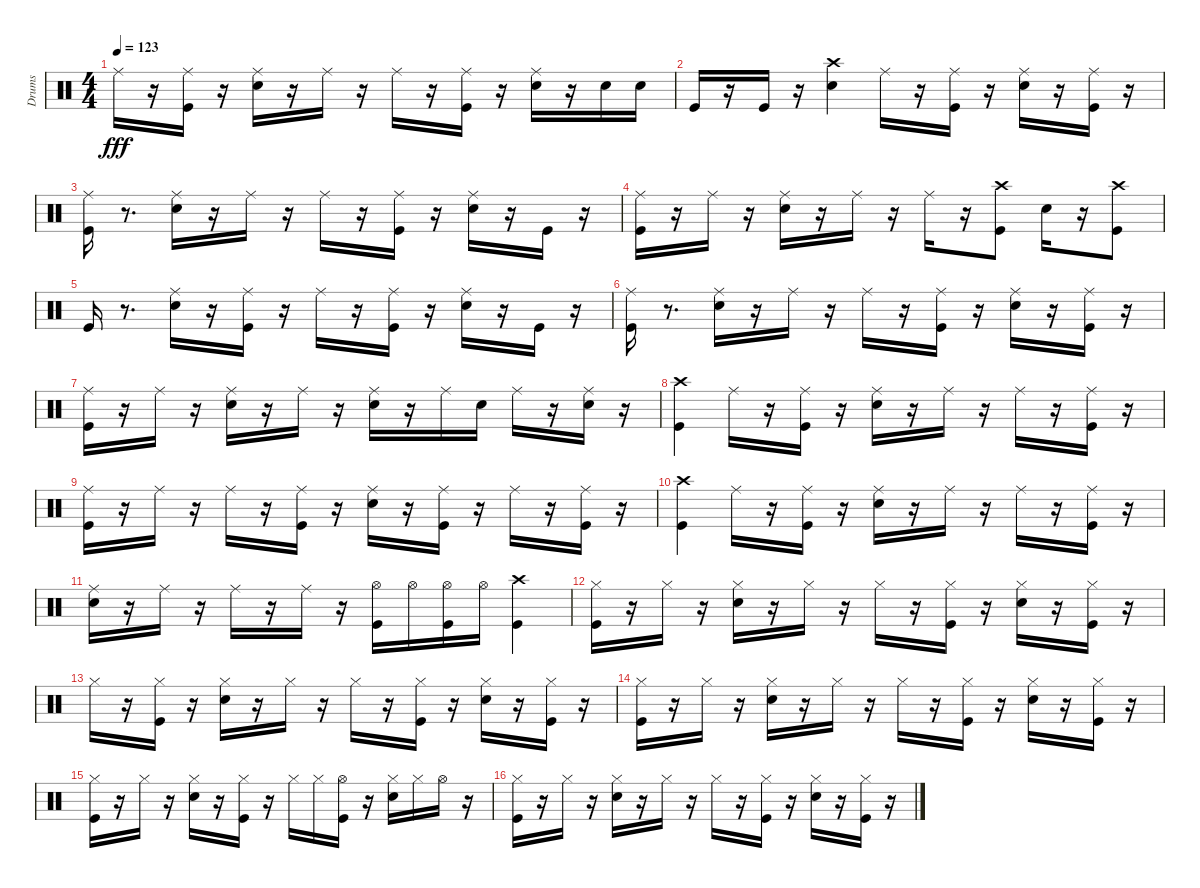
\track ("Drums" "Drums") {instrument percussion}
\staff {score}
\articulation defaults
\ts (4 4)
\tempo 123
\clef neutral
\ks c "Ride (middle)".16{dy fff}
r.16 ("Ride (middle)" "Kick (hit)").16 r.16 ("Ride (middle)" "Snare (hit) 2").16 r.16 "Ride (middle)".16 r.16 "Ride (middle)".16 r.16 ("Ride (middle)" "Kick (hit)").16 r.16 ("Ride (middle)" "Snare (hit) 2").16 r.16 "Snare (hit) 2".16 "Snare (hit) 2".16 |
"Kick (hit)".16 r.16 "Kick (hit)".16 r.16 ("Snare (hit) 2" "Crash high (hit)").4 "Ride (middle)".16 r.16 ("Kick (hit)" "Ride (middle)").16 r.16 ("Snare (hit) 2" "Ride (middle)").16 r.16 ("Kick (hit)" "Ride (middle)").16 r.16 |
("Ride (middle)" "Kick (hit)").16 r.8{d} ("Ride (middle)" "Snare (hit) 2").16 r.16 "Ride (middle)".16 r.16 "Ride (middle)".16 r.16 ("Ride (middle)" "Kick (hit)").16 r.16 ("Ride (middle)" "Snare (hit) 2").16 r.16 "Kick (hit)".16 r.16 |
("Kick (hit)" "Ride (middle)").16 r.16 "Ride (middle)".16 r.16 ("Snare (hit) 2" "Ride (middle)").16 r.16 "Ride (middle)".16 r.16 "Ride (middle)".16 r.16 ("Kick (hit)" "Crash high (hit)").8 "Snare (hit) 2".16 r.16 ("Kick (hit)" "Crash high (hit)").8 |
"Kick (hit)".16 r.8{d} ("Ride (middle)" "Snare (hit) 2").16 r.16 ("Ride (middle)" "Kick (hit)").16 r.16 "Ride (middle)".16 r.16 ("Ride (middle)" "Kick (hit)").16 r.16 ("Ride (middle)" "Snare (hit) 2").16 r.16 "Kick (hit)".16 r.16 |
("Kick (hit)" "Ride (middle)").16 r.8{d} ("Snare (hit) 2" "Ride (middle)").16 r.16 "Ride (middle)".16 r.16 "Ride (middle)".16 r.16 ("Kick (hit)" "Ride (middle)").16 r.16 ("Snare (hit) 2" "Ride (middle)").16 r.16 ("Kick (hit)" "Ride (middle)").16 r.16 |
("Ride (middle)" "Kick (hit)").16 r.16 "Ride (middle)".16 r.16 ("Ride (middle)" "Snare (hit) 2").16 r.16 "Ride (middle)".16 r.16 ("Ride (middle)" "Snare (hit) 2").16 r.16 "Ride (middle)".16 "Snare (hit) 2".16 "Ride (middle)".16 r.16 ("Ride (middle)" "Snare (hit) 2").16 r.16 |
("Kick (hit)" "Crash high (hit)").4 "Ride (middle)".16 r.16 ("Kick (hit)" "Ride (middle)").16 r.16 ("Snare (hit) 2" "Ride (middle)").16 r.16 "Ride (middle)".16 r.16 "Ride (middle)".16 r.16 ("Kick (hit)" "Ride (middle)").16 r.16 |
("Ride (middle)" "Kick (hit)").16 r.16 "Ride (middle)".16 r.16 "Ride (middle)".16 r.16 ("Ride (middle)" "Kick (hit)").16 r.16 ("Ride (middle)" "Snare (hit) 2").16 r.16 ("Ride (middle)" "Kick (hit)").16 r.16 "Ride (middle)".16 r.16 ("Ride (middle)" "Kick (hit)").16 r.16 |
("Kick (hit)" "Crash high (hit)").4 "Ride (middle)".16 r.16 ("Kick (hit)" "Ride (middle)").16 r.16 ("Snare (hit) 2" "Ride (middle)").16 r.16 "Ride (middle)".16 r.16 "Ride (middle)".16 r.16 ("Kick (hit)" "Ride (middle)").16 r.16 |
("Ride (middle)" "Snare (hit) 2").16 r.16 "Ride (middle)".16 r.16 "Ride (middle)".16 r.16 "Ride (middle)".16 r.16 ("Hi-Hat (open)" "Kick (hit)").16 "Hi-Hat (open)".16 ("Hi-Hat (open)" "Kick (hit)").16 "Hi-Hat (open)".16 ("Kick (hit)" "Crash high (hit)").4 |
("Kick (hit)" "Hi-Hat (closed)").16 r.16 "Hi-Hat (closed)".16 r.16 ("Snare (hit) 2" "Hi-Hat (closed)").16 r.16 "Hi-Hat (closed)".16 r.16 "Hi-Hat (closed)".16 r.16 ("Kick (hit)" "Hi-Hat (closed)").16 r.16 ("Snare (hit) 2" "Hi-Hat (closed)").16 r.16 ("Kick (hit)" "Hi-Hat (closed)").16 r.16 |
"Hi-Hat (closed)".16 r.16 ("Kick (hit)" "Hi-Hat (closed)").16 r.16 ("Snare (hit) 2" "Hi-Hat (closed)").16 r.16 "Hi-Hat (closed)".16 r.16 "Hi-Hat (closed)".16 r.16 ("Kick (hit)" "Hi-Hat (closed)").16 r.16 ("Snare (hit) 2" "Hi-Hat (closed)").16 r.16 ("Kick (hit)" "Hi-Hat (closed)").16 r.16 |
("Kick (hit)" "Hi-Hat (closed)").16 r.16 "Hi-Hat (closed)".16 r.16 ("Snare (hit) 2" "Hi-Hat (closed)").16 r.16 "Hi-Hat (closed)".16 r.16 "Hi-Hat (closed)".16 r.16 ("Kick (hit)" "Hi-Hat (closed)").16 r.16 ("Snare (hit) 2" "Hi-Hat (closed)").16 r.16 ("Kick (hit)" "Hi-Hat (closed)").16 r.16 |
("Kick (hit)" "Hi-Hat (closed)").16 r.16 "Hi-Hat (closed)".16 r.16 ("Snare (hit) 2" "Hi-Hat (closed)").16 r.16 ("Kick (hit)" "Hi-Hat (closed)").16 r.16 "Hi-Hat (closed)".16 "Hi-Hat (closed)".16 ("Kick (hit)" "Hi-Hat (open)").16 r.16 ("Snare (hit) 2" "Hi-Hat (closed)").16 "Hi-Hat (closed)".16 "Hi-Hat (open)".16 r.16 |
("Kick (hit)" "Hi-Hat (closed)").16 r.16 "Hi-Hat (closed)".16 r.16 ("Snare (hit) 2" "Hi-Hat (closed)").16 r.16 "Hi-Hat (closed)".16 r.16 "Hi-Hat (closed)".16 r.16 ("Kick (hit)" "Hi-Hat (closed)").16 r.16 ("Snare (hit) 2" "Hi-Hat (closed)").16 r.16 ("Kick (hit)" "Hi-Hat (closed)").16 r.16
